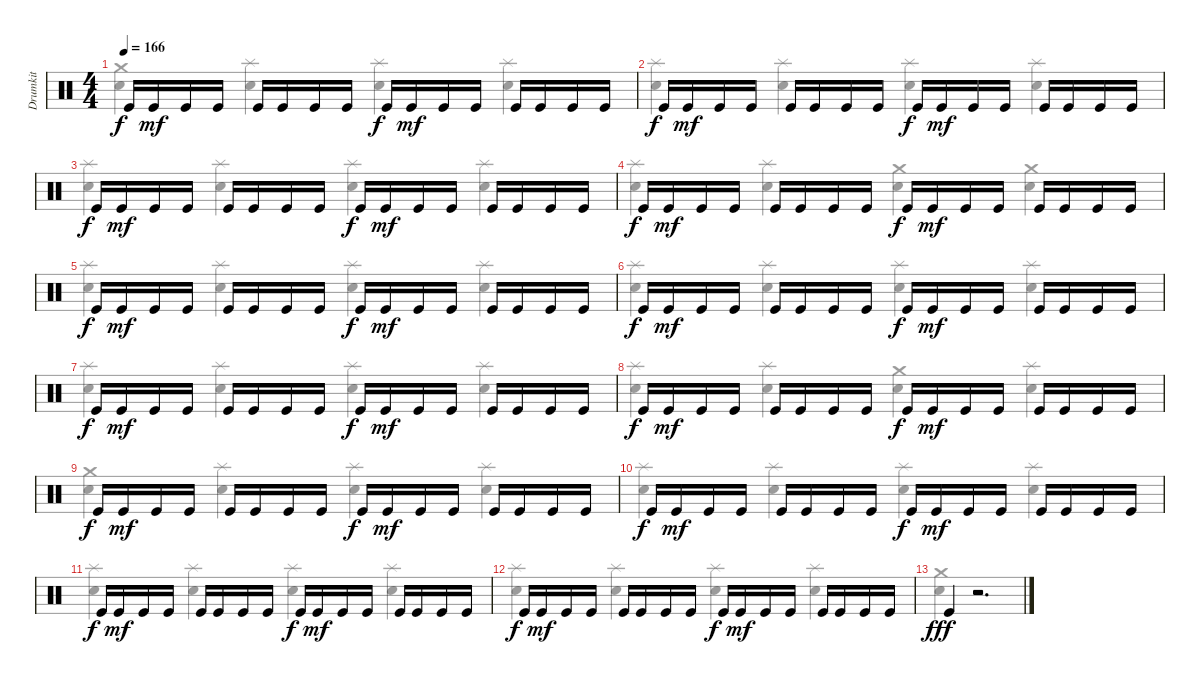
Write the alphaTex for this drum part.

\track ("Drumkit" "Drumkit") {instrument percussion}
\staff {score}
\articulation defaults
\voice
\ts (4 4)
\tempo 166
\clef neutral
\ks c "Kick (hit)".16{dy f} "Kick (hit)".16{dy mf} "Kick (hit)".16 "Kick (hit)".16 "Kick (hit)".16 "Kick (hit)".16 "Kick (hit)".16 "Kick (hit)".16 "Kick (hit)".16{dy f} "Kick (hit)".16{dy mf} "Kick (hit)".16 "Kick (hit)".16 "Kick (hit)".16 "Kick (hit)".16 "Kick (hit)".16 "Kick (hit)".16
|
"Kick (hit)".16{dy f} "Kick (hit)".16{dy mf} "Kick (hit)".16 "Kick (hit)".16 "Kick (hit)".16 "Kick (hit)".16 "Kick (hit)".16 "Kick (hit)".16 "Kick (hit)".16{dy f} "Kick (hit)".16{dy mf} "Kick (hit)".16 "Kick (hit)".16 "Kick (hit)".16 "Kick (hit)".16 "Kick (hit)".16 "Kick (hit)".16 |
"Kick (hit)".16{dy f} "Kick (hit)".16{dy mf} "Kick (hit)".16 "Kick (hit)".16 "Kick (hit)".16 "Kick (hit)".16 "Kick (hit)".16 "Kick (hit)".16 "Kick (hit)".16{dy f} "Kick (hit)".16{dy mf} "Kick (hit)".16 "Kick (hit)".16 "Kick (hit)".16 "Kick (hit)".16 "Kick (hit)".16 "Kick (hit)".16 |
"Kick (hit)".16{dy f} "Kick (hit)".16{dy mf} "Kick (hit)".16 "Kick (hit)".16 "Kick (hit)".16 "Kick (hit)".16 "Kick (hit)".16 "Kick (hit)".16 "Kick (hit)".16{dy f} "Kick (hit)".16{dy mf} "Kick (hit)".16 "Kick (hit)".16 "Kick (hit)".16 "Kick (hit)".16 "Kick (hit)".16 "Kick (hit)".16 |
"Kick (hit)".16{dy f} "Kick (hit)".16{dy mf} "Kick (hit)".16 "Kick (hit)".16 "Kick (hit)".16 "Kick (hit)".16 "Kick (hit)".16 "Kick (hit)".16 "Kick (hit)".16{dy f} "Kick (hit)".16{dy mf} "Kick (hit)".16 "Kick (hit)".16 "Kick (hit)".16 "Kick (hit)".16 "Kick (hit)".16 "Kick (hit)".16 |
"Kick (hit)".16{dy f} "Kick (hit)".16{dy mf} "Kick (hit)".16 "Kick (hit)".16 "Kick (hit)".16 "Kick (hit)".16 "Kick (hit)".16 "Kick (hit)".16 "Kick (hit)".16{dy f} "Kick (hit)".16{dy mf} "Kick (hit)".16 "Kick (hit)".16 "Kick (hit)".16 "Kick (hit)".16 "Kick (hit)".16 "Kick (hit)".16 |
"Kick (hit)".16{dy f} "Kick (hit)".16{dy mf} "Kick (hit)".16 "Kick (hit)".16 "Kick (hit)".16 "Kick (hit)".16 "Kick (hit)".16 "Kick (hit)".16 "Kick (hit)".16{dy f} "Kick (hit)".16{dy mf} "Kick (hit)".16 "Kick (hit)".16 "Kick (hit)".16 "Kick (hit)".16 "Kick (hit)".16 "Kick (hit)".16 |
"Kick (hit)".16{dy f} "Kick (hit)".16{dy mf} "Kick (hit)".16 "Kick (hit)".16 "Kick (hit)".16 "Kick (hit)".16 "Kick (hit)".16 "Kick (hit)".16 "Kick (hit)".16{dy f} "Kick (hit)".16{dy mf} "Kick (hit)".16 "Kick (hit)".16 "Kick (hit)".16 "Kick (hit)".16 "Kick (hit)".16 "Kick (hit)".16 |
"Kick (hit)".16{dy f} "Kick (hit)".16{dy mf} "Kick (hit)".16 "Kick (hit)".16 "Kick (hit)".16 "Kick (hit)".16 "Kick (hit)".16 "Kick (hit)".16 "Kick (hit)".16{dy f} "Kick (hit)".16{dy mf} "Kick (hit)".16 "Kick (hit)".16 "Kick (hit)".16 "Kick (hit)".16 "Kick (hit)".16 "Kick (hit)".16 |
"Kick (hit)".16{dy f} "Kick (hit)".16{dy mf} "Kick (hit)".16 "Kick (hit)".16 "Kick (hit)".16 "Kick (hit)".16 "Kick (hit)".16 "Kick (hit)".16 "Kick (hit)".16{dy f} "Kick (hit)".16{dy mf} "Kick (hit)".16 "Kick (hit)".16 "Kick (hit)".16 "Kick (hit)".16 "Kick (hit)".16 "Kick (hit)".16 |
"Kick (hit)".16{dy f} "Kick (hit)".16{dy mf} "Kick (hit)".16 "Kick (hit)".16 "Kick (hit)".16 "Kick (hit)".16 "Kick (hit)".16 "Kick (hit)".16 "Kick (hit)".16{dy f} "Kick (hit)".16{dy mf} "Kick (hit)".16 "Kick (hit)".16 "Kick (hit)".16 "Kick (hit)".16 "Kick (hit)".16 "Kick (hit)".16 |
"Kick (hit)".16{dy f} "Kick (hit)".16{dy mf} "Kick (hit)".16 "Kick (hit)".16 "Kick (hit)".16 "Kick (hit)".16 "Kick (hit)".16 "Kick (hit)".16 "Kick (hit)".16{dy f} "Kick (hit)".16{dy mf} "Kick (hit)".16 "Kick (hit)".16 "Kick (hit)".16 "Kick (hit)".16 "Kick (hit)".16 "Kick (hit)".16 |
"Kick (hit)".4{dy fff} r.2{d}
\voice
\clef neutral
\ottava regular
\simile none
\ks c
("Snare (hit) 2" "Crash medium (hit)").4{dy f} ("Snare (hit) 2" "Splash (hit)").4 ("Snare (hit) 2" "Splash (hit)").4 ("Snare (hit) 2" "Splash (hit)").4 |
("Snare (hit) 2" "Splash (hit)").4 ("Snare (hit) 2" "Splash (hit)").4 ("Snare (hit) 2" "Splash (hit)").4 ("Snare (hit) 2" "Splash (hit)").4 |
("Snare (hit) 2" "Splash (hit)").4 ("Snare (hit) 2" "Splash (hit)").4 ("Snare (hit) 2" "Splash (hit)").4 ("Snare (hit) 2" "Splash (hit)").4 |
("Snare (hit) 2" "Splash (hit)").4 ("Snare (hit) 2" "Splash (hit)").4 ("Snare (hit) 2" "Crash medium (hit)").4 ("Snare (hit) 2" "Crash medium (hit)").4 |
("Snare (hit) 2" "Splash (hit)").4 ("Snare (hit) 2" "Splash (hit)").4 ("Snare (hit) 2" "Splash (hit)").4 ("Snare (hit) 2" "Splash (hit)").4 |
("Snare (hit) 2" "Splash (hit)").4 ("Snare (hit) 2" "Splash (hit)").4 ("Snare (hit) 2" "Splash (hit)").4 ("Snare (hit) 2" "Splash (hit)").4 |
("Snare (hit) 2" "Splash (hit)").4 ("Snare (hit) 2" "Splash (hit)").4 ("Snare (hit) 2" "Splash (hit)").4 ("Snare (hit) 2" "Splash (hit)").4 |
("Snare (hit) 2" "Splash (hit)").4 ("Snare (hit) 2" "Splash (hit)").4 ("Snare (hit) 2" "Crash medium (hit)").4 ("Snare (hit) 2" "Splash (hit)").4 |
("Snare (hit) 2" "Crash medium (hit)").4 ("Snare (hit) 2" "Splash (hit)").4 ("Snare (hit) 2" "Splash (hit)").4 ("Snare (hit) 2" "Splash (hit)").4 |
("Snare (hit) 2" "Splash (hit)").4 ("Snare (hit) 2" "Splash (hit)").4 ("Snare (hit) 2" "Splash (hit)").4 ("Snare (hit) 2" "Splash (hit)").4 |
("Snare (hit) 2" "Splash (hit)").4 ("Snare (hit) 2" "Splash (hit)").4 ("Snare (hit) 2" "Splash (hit)").4 ("Snare (hit) 2" "Splash (hit)").4 |
("Snare (hit) 2" "Splash (hit)").4 ("Snare (hit) 2" "Splash (hit)").4 ("Snare (hit) 2" "Splash (hit)").4 ("Snare (hit) 2" "Splash (hit)").4 |
("Snare (hit) 2" "Crash medium (hit)").4 r.2{d}
